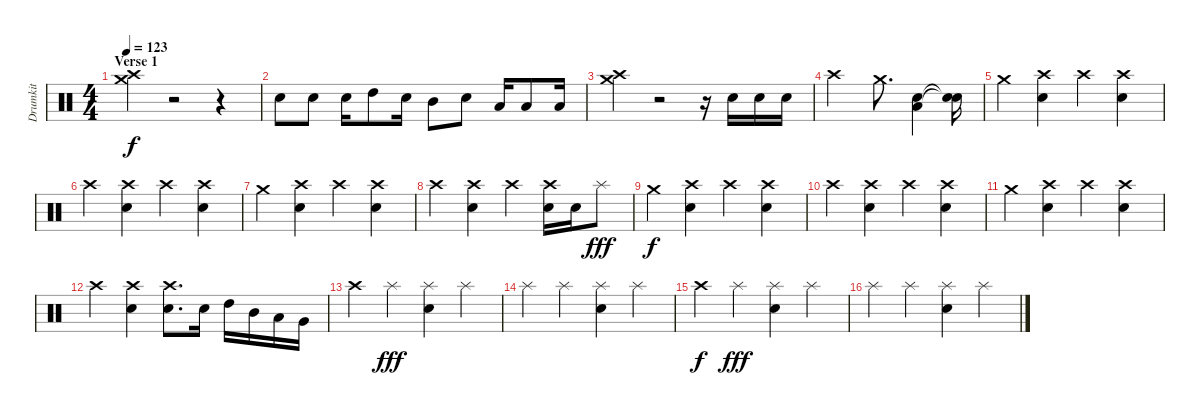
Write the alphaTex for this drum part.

\track ("Drumkit" "Drumkit") {instrument percussion}
\staff {score}
\articulation defaults
\ts (4 4)
\section ("" "Verse 1")
\tempo 123
\clef neutral
\ks c
("Crash medium (hit)" "Crash high (hit)").4{dy f} r.2 r.4 |
"Electric Snare (hit)".8 "Electric Snare (hit)".8 "Electric Snare (hit)".16 "High Tom (hit)".8 "Electric Snare (hit)".16 "Mid Tom (hit)".8 "Electric Snare (hit)".8 "Low Tom (hit)".16 "Low Tom (hit)".8 "Low Tom (hit)".16 |
("Crash medium (hit)" "Crash high (hit)").4 r.2 r.16 "Electric Snare (hit)".16 "Electric Snare (hit)".16 "Electric Snare (hit)".16 |
"Crash high (hit)".2 "Crash medium (hit)".8{d} ("Low Floor Tom (hit)" "Electric Snare (hit)").4 ("Snare (hit)"{t} "Snare (hit)"{t}).16 |
"Crash medium (hit)".4 ("Crash high (hit)" "Electric Snare (hit)").4 "Crash high (hit)".4 ("Crash high (hit)" "Electric Snare (hit)").4 |
"Crash high (hit)".4 ("Crash high (hit)" "Electric Snare (hit)").4 "Crash high (hit)".4 ("Crash high (hit)" "Electric Snare (hit)").4 |
"Crash medium (hit)".4 ("Crash high (hit)" "Electric Snare (hit)").4 "Crash high (hit)".4 ("Crash high (hit)" "Electric Snare (hit)").4 |
"Crash high (hit)".4 ("Crash high (hit)" "Electric Snare (hit)").4 "Crash high (hit)".4 ("Crash high (hit)" "Electric Snare (hit)").16 "Electric Snare (hit)".16 "Splash (hit)".8{dy fff} |
"Crash medium (hit)".4{dy f} ("Crash high (hit)" "Electric Snare (hit)").4 "Crash high (hit)".4 ("Crash high (hit)" "Electric Snare (hit)").4 |
"Crash high (hit)".4 ("Crash high (hit)" "Electric Snare (hit)").4 "Crash high (hit)".4 ("Crash high (hit)" "Electric Snare (hit)").4 |
"Crash medium (hit)".4 ("Crash high (hit)" "Electric Snare (hit)").4 "Crash high (hit)".4 ("Crash high (hit)" "Electric Snare (hit)").4 |
"Crash high (hit)".4 ("Crash high (hit)" "Electric Snare (hit)").4 ("Crash high (hit)" "Electric Snare (hit)").8{d} "Electric Snare (hit)".16 "High Tom (hit)".16 "Mid Tom (hit)".16 "Low Tom (hit)".16 "Very Low Tom (hit)".16 |
"Crash high (hit)".4 "Splash (hit)".4{dy fff} ("Splash (hit)" "Electric Snare (hit)").4 "Splash (hit)".4 |
"Splash (hit)".4 "Splash (hit)".4 ("Splash (hit)" "Electric Snare (hit)").4 "Splash (hit)".4 |
"Crash high (hit)".4{dy f} "Splash (hit)".4{dy fff} ("Splash (hit)" "Electric Snare (hit)").4 "Splash (hit)".4 |
"Splash (hit)".4 "Splash (hit)".4 ("Splash (hit)" "Electric Snare (hit)").4 "Splash (hit)".4
